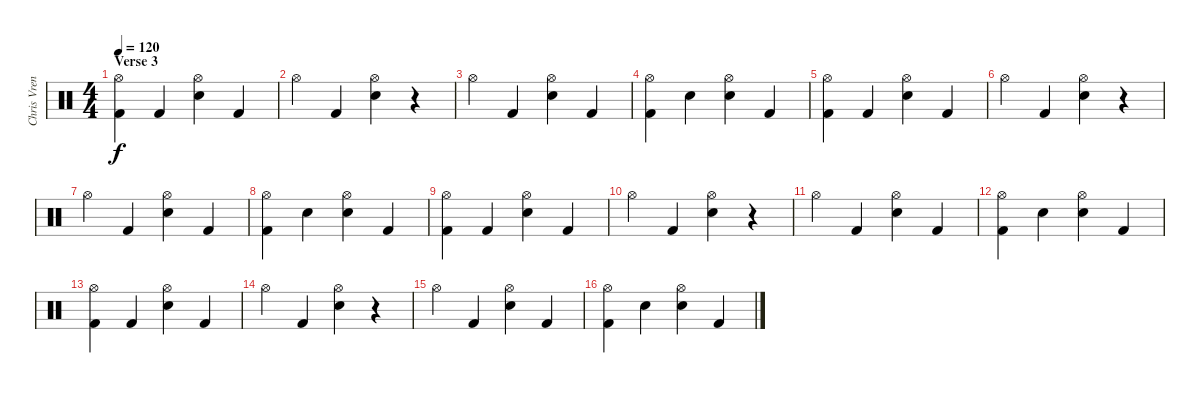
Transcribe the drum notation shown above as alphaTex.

\track ("Chris Vrenna" "Chris Vren") {instrument percussion}
\staff {score}
\articulation defaults
\ts (4 4)
\section ("" "Verse 3")
\tempo 120
\clef neutral
\ks c
("Hi-Hat (open)" "Kick (hit) 2").4{dy f} "Kick (hit) 2".4 ("Hi-Hat (open)" "Snare (hit) 2").4 "Kick (hit) 2".4 |
"Hi-Hat (open)".4 "Kick (hit) 2".4 ("Hi-Hat (open)" "Snare (hit) 2").4 r.4 |
"Hi-Hat (open)".4 "Kick (hit) 2".4 ("Hi-Hat (open)" "Snare (hit) 2").4 "Kick (hit) 2".4 |
("Hi-Hat (open)" "Kick (hit) 2").4 "Snare (hit) 2".4 ("Hi-Hat (open)" "Electric Snare (hit)").4 "Kick (hit) 2".4 |
("Hi-Hat (open)" "Kick (hit) 2").4 "Kick (hit) 2".4 ("Hi-Hat (open)" "Snare (hit) 2").4 "Kick (hit) 2".4 |
"Hi-Hat (open)".4 "Kick (hit) 2".4 ("Hi-Hat (open)" "Snare (hit) 2").4 r.4 |
"Hi-Hat (open)".4 "Kick (hit) 2".4 ("Hi-Hat (open)" "Snare (hit) 2").4 "Kick (hit) 2".4 |
("Hi-Hat (open)" "Kick (hit) 2").4 "Snare (hit) 2".4 ("Hi-Hat (open)" "Electric Snare (hit)").4 "Kick (hit) 2".4 |
("Hi-Hat (open)" "Kick (hit) 2").4 "Kick (hit) 2".4 ("Hi-Hat (open)" "Snare (hit) 2").4 "Kick (hit) 2".4 |
"Hi-Hat (open)".4 "Kick (hit) 2".4 ("Hi-Hat (open)" "Snare (hit) 2").4 r.4 |
"Hi-Hat (open)".4 "Kick (hit) 2".4 ("Hi-Hat (open)" "Snare (hit) 2").4 "Kick (hit) 2".4 |
("Hi-Hat (open)" "Kick (hit) 2").4 "Snare (hit) 2".4 ("Hi-Hat (open)" "Electric Snare (hit)").4 "Kick (hit) 2".4 |
("Hi-Hat (open)" "Kick (hit) 2").4 "Kick (hit) 2".4 ("Hi-Hat (open)" "Snare (hit) 2").4 "Kick (hit) 2".4 |
"Hi-Hat (open)".4 "Kick (hit) 2".4 ("Hi-Hat (open)" "Snare (hit) 2").4 r.4 |
"Hi-Hat (open)".4 "Kick (hit) 2".4 ("Hi-Hat (open)" "Snare (hit) 2").4 "Kick (hit) 2".4 |
("Hi-Hat (open)" "Kick (hit) 2").4 "Snare (hit) 2".4 ("Hi-Hat (open)" "Electric Snare (hit)").4 "Kick (hit) 2".4
